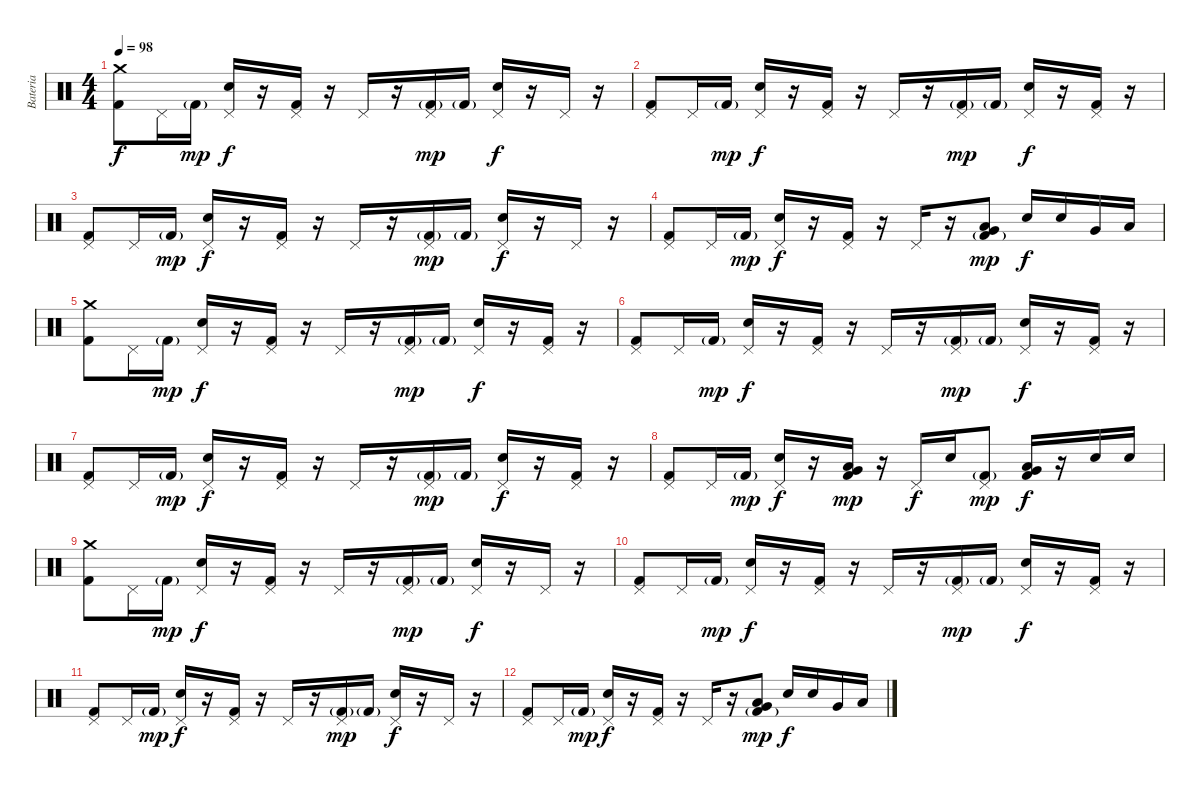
\track ("Bateria" "Bateria") {instrument percussion}
\staff {score}
\articulation defaults
\ts (4 4)
\tempo 98
\clef neutral
\ks c
("Crash medium (hit)" "Kick (hit) 2").8{dy f} "Pedal Hi-Hat (hit)".16 "Kick (hit) 2"{g}.16{dy mp} ("Pedal Hi-Hat (hit)" "Snare (hit) 2").16{dy f} r.16 ("Pedal Hi-Hat (hit)" "Kick (hit) 2").16 r.16 "Pedal Hi-Hat (hit)".16 r.16 ("Pedal Hi-Hat (hit)" "Kick (hit) 2"{g}).16{dy mp} "Kick (hit) 2"{g}.16 ("Pedal Hi-Hat (hit)" "Snare (hit) 2").16{dy f} r.16 "Pedal Hi-Hat (hit)".16 r.16 |
("Pedal Hi-Hat (hit)" "Kick (hit) 2").8 "Pedal Hi-Hat (hit)".16 "Kick (hit) 2"{g}.16{dy mp} ("Pedal Hi-Hat (hit)" "Snare (hit) 2").16{dy f} r.16 ("Pedal Hi-Hat (hit)" "Kick (hit) 2").16 r.16 "Pedal Hi-Hat (hit)".16 r.16 ("Pedal Hi-Hat (hit)" "Kick (hit) 2"{g}).16{dy mp} "Kick (hit) 2"{g}.16 ("Pedal Hi-Hat (hit)" "Snare (hit) 2").16{dy f} r.16 ("Pedal Hi-Hat (hit)" "Kick (hit) 2").16 r.16 |
("Pedal Hi-Hat (hit)" "Kick (hit) 2").8 "Pedal Hi-Hat (hit)".16 "Kick (hit) 2"{g}.16{dy mp} ("Pedal Hi-Hat (hit)" "Snare (hit) 2").16{dy f} r.16 ("Pedal Hi-Hat (hit)" "Kick (hit) 2").16 r.16 "Pedal Hi-Hat (hit)".16 r.16 ("Pedal Hi-Hat (hit)" "Kick (hit) 2"{g}).16{dy mp} "Kick (hit) 2"{g}.16 ("Pedal Hi-Hat (hit)" "Snare (hit) 2").16{dy f} r.16 "Pedal Hi-Hat (hit)".16 r.16 |
("Pedal Hi-Hat (hit)" "Kick (hit) 2").8 "Pedal Hi-Hat (hit)".16 "Kick (hit) 2"{g}.16{dy mp} ("Pedal Hi-Hat (hit)" "Snare (hit) 2").16{dy f} r.16 ("Pedal Hi-Hat (hit)" "Kick (hit) 2").16 r.16 "Pedal Hi-Hat (hit)".16 r.16 ("Low Tom (hit)" "Very Low Tom (hit)" "Kick (hit) 2"{g}).8{dy mp} "Snare (hit) 2".16{dy f} "Snare (hit) 2".16 "Very Low Tom (hit)".16 "Low Floor Tom (hit)".16 |
("Crash medium (hit)" "Kick (hit) 2").8 "Pedal Hi-Hat (hit)".16 "Kick (hit) 2"{g}.16{dy mp} ("Pedal Hi-Hat (hit)" "Snare (hit) 2").16{dy f} r.16 ("Pedal Hi-Hat (hit)" "Kick (hit) 2").16 r.16 "Pedal Hi-Hat (hit)".16 r.16 ("Pedal Hi-Hat (hit)" "Kick (hit) 2"{g}).16{dy mp} "Kick (hit) 2"{g}.16 ("Pedal Hi-Hat (hit)" "Snare (hit) 2").16{dy f} r.16 ("Pedal Hi-Hat (hit)" "Kick (hit) 2").16 r.16 |
("Pedal Hi-Hat (hit)" "Kick (hit) 2").8 "Pedal Hi-Hat (hit)".16 "Kick (hit) 2"{g}.16{dy mp} ("Pedal Hi-Hat (hit)" "Snare (hit) 2").16{dy f} r.16 ("Pedal Hi-Hat (hit)" "Kick (hit) 2").16 r.16 "Pedal Hi-Hat (hit)".16 r.16 ("Pedal Hi-Hat (hit)" "Kick (hit) 2"{g}).16{dy mp} "Kick (hit) 2"{g}.16 ("Pedal Hi-Hat (hit)" "Snare (hit) 2").16{dy f} r.16 ("Pedal Hi-Hat (hit)" "Kick (hit) 2").16 r.16 |
("Pedal Hi-Hat (hit)" "Kick (hit) 2").8{volume 5} "Pedal Hi-Hat (hit)".16 "Kick (hit) 2"{g}.16{dy mp} ("Pedal Hi-Hat (hit)" "Snare (hit) 2").16{dy f} r.16 ("Pedal Hi-Hat (hit)" "Kick (hit) 2").16 r.16 "Pedal Hi-Hat (hit)".16 r.16 ("Pedal Hi-Hat (hit)" "Kick (hit) 2"{g}).16{dy mp} "Kick (hit) 2"{g}.16 ("Pedal Hi-Hat (hit)" "Snare (hit) 2").16{dy f} r.16 ("Pedal Hi-Hat (hit)" "Kick (hit) 2").16 r.16 |
("Pedal Hi-Hat (hit)" "Kick (hit) 2").8 "Pedal Hi-Hat (hit)".16 "Kick (hit) 2"{g}.16{dy mp} ("Pedal Hi-Hat (hit)" "Snare (hit) 2").16{dy f} r.16 ("Very Low Tom (hit)" "Low Floor Tom (hit)" "Kick (hit) 2").16{dy mp} r.16 "Pedal Hi-Hat (hit)".16{dy f} "Snare (hit) 2".16 ("Pedal Hi-Hat (hit)" "Kick (hit) 2"{g}).8{dy mp} ("Very Low Tom (hit)" "Low Floor Tom (hit)" "Kick (hit) 2").16{dy f} r.16 "Snare (hit) 2".16 "Snare (hit) 2".16 |
("Crash medium (hit)" "Kick (hit) 2").8{volume 0} "Pedal Hi-Hat (hit)".16 "Kick (hit) 2"{g}.16{dy mp} ("Pedal Hi-Hat (hit)" "Snare (hit) 2").16{dy f} r.16 ("Pedal Hi-Hat (hit)" "Kick (hit) 2").16 r.16 "Pedal Hi-Hat (hit)".16 r.16 ("Pedal Hi-Hat (hit)" "Kick (hit) 2"{g}).16{dy mp} "Kick (hit) 2"{g}.16 ("Pedal Hi-Hat (hit)" "Snare (hit) 2").16{dy f} r.16 "Pedal Hi-Hat (hit)".16 r.16 |
("Pedal Hi-Hat (hit)" "Kick (hit) 2").8 "Pedal Hi-Hat (hit)".16 "Kick (hit) 2"{g}.16{dy mp} ("Pedal Hi-Hat (hit)" "Snare (hit) 2").16{dy f} r.16 ("Pedal Hi-Hat (hit)" "Kick (hit) 2").16 r.16 "Pedal Hi-Hat (hit)".16 r.16 ("Pedal Hi-Hat (hit)" "Kick (hit) 2"{g}).16{dy mp} "Kick (hit) 2"{g}.16 ("Pedal Hi-Hat (hit)" "Snare (hit) 2").16{dy f} r.16 ("Pedal Hi-Hat (hit)" "Kick (hit) 2").16 r.16 |
("Pedal Hi-Hat (hit)" "Kick (hit) 2").8 "Pedal Hi-Hat (hit)".16 "Kick (hit) 2"{g}.16{dy mp} ("Pedal Hi-Hat (hit)" "Snare (hit) 2").16{dy f} r.16 ("Pedal Hi-Hat (hit)" "Kick (hit) 2").16 r.16 "Pedal Hi-Hat (hit)".16 r.16 ("Pedal Hi-Hat (hit)" "Kick (hit) 2"{g}).16{dy mp} "Kick (hit) 2"{g}.16 ("Pedal Hi-Hat (hit)" "Snare (hit) 2").16{dy f} r.16 "Pedal Hi-Hat (hit)".16 r.16 |
("Pedal Hi-Hat (hit)" "Kick (hit) 2").8 "Pedal Hi-Hat (hit)".16 "Kick (hit) 2"{g}.16{dy mp} ("Pedal Hi-Hat (hit)" "Snare (hit) 2").16{dy f} r.16 ("Pedal Hi-Hat (hit)" "Kick (hit) 2").16 r.16 "Pedal Hi-Hat (hit)".16 r.16 ("Low Tom (hit)" "Very Low Tom (hit)" "Kick (hit) 2"{g}).8{dy mp} "Snare (hit) 2".16{dy f} "Snare (hit) 2".16 "Very Low Tom (hit)".16 "Low Floor Tom (hit)".16
